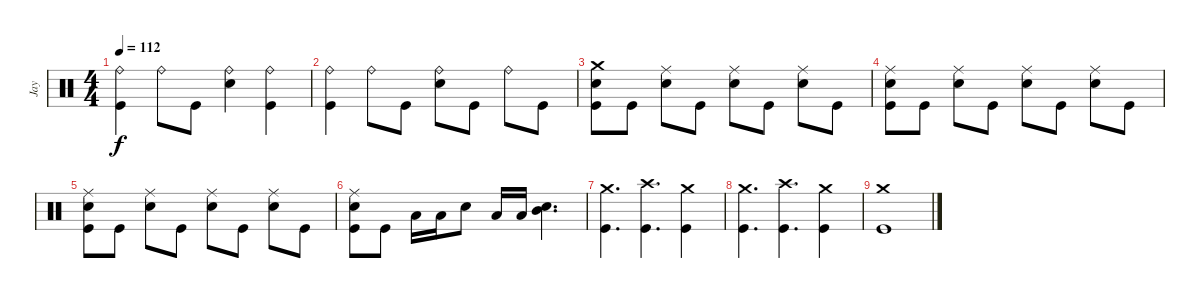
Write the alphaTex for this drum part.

\track ("Jay" "Jay") {instrument percussion}
\staff {score}
\articulation defaults
\ts (4 4)
\tempo 112
\clef neutral
\ks c
("Ride (bell)" "Kick (hit)").4{dy f} "Ride (bell)".8 "Kick (hit)".8 ("Ride (bell)" "Electric Snare (hit)").4 ("Ride (bell)" "Kick (hit)").4 |
("Ride (bell)" "Kick (hit)").4 "Ride (bell)".8 "Kick (hit)".8 ("Ride (bell)" "Electric Snare (hit)").8 "Kick (hit)".8 "Ride (bell)".8 "Kick (hit)".8 |
("Crash medium (hit)" "Electric Snare (hit)" "Kick (hit)").8 "Kick (hit)".8 ("Ride (middle)" "Electric Snare (hit)").8 "Kick (hit)".8 ("Ride (middle)" "Electric Snare (hit)").8 "Kick (hit)".8 ("Ride (middle)" "Electric Snare (hit)").8 "Kick (hit)".8 |
("Ride (middle)" "Electric Snare (hit)" "Kick (hit)").8 "Kick (hit)".8 ("Ride (middle)" "Electric Snare (hit)").8 "Kick (hit)".8 ("Ride (middle)" "Electric Snare (hit)").8 "Kick (hit)".8 ("Ride (middle)" "Electric Snare (hit)").8 "Kick (hit)".8 |
("Ride (middle)" "Electric Snare (hit)" "Kick (hit)").8 "Kick (hit)".8 ("Ride (middle)" "Electric Snare (hit)").8 "Kick (hit)".8 ("Ride (middle)" "Electric Snare (hit)").8 "Kick (hit)".8 ("Ride (middle)" "Electric Snare (hit)").8 "Kick (hit)".8 |
("Ride (middle)" "Electric Snare (hit)" "Kick (hit)").8 "Kick (hit)".8 "Low Tom (hit)".16 "Low Tom (hit)".16 "Electric Snare (hit)".8 "Low Tom (hit)".16 "Low Tom (hit)".16 ("Mid Tom (hit)" "Electric Snare (hit)").4{d} |
("Crash medium (hit)" "Kick (hit)").4{d} ("Crash high (hit)" "Kick (hit)").4{d} ("Crash medium (hit)" "Kick (hit)").4 |
("Crash medium (hit)" "Kick (hit)").4{d} ("Crash high (hit)" "Kick (hit)").4{d} ("Crash medium (hit)" "Kick (hit)").4 |
("Crash medium (hit)" "Kick (hit)").1
